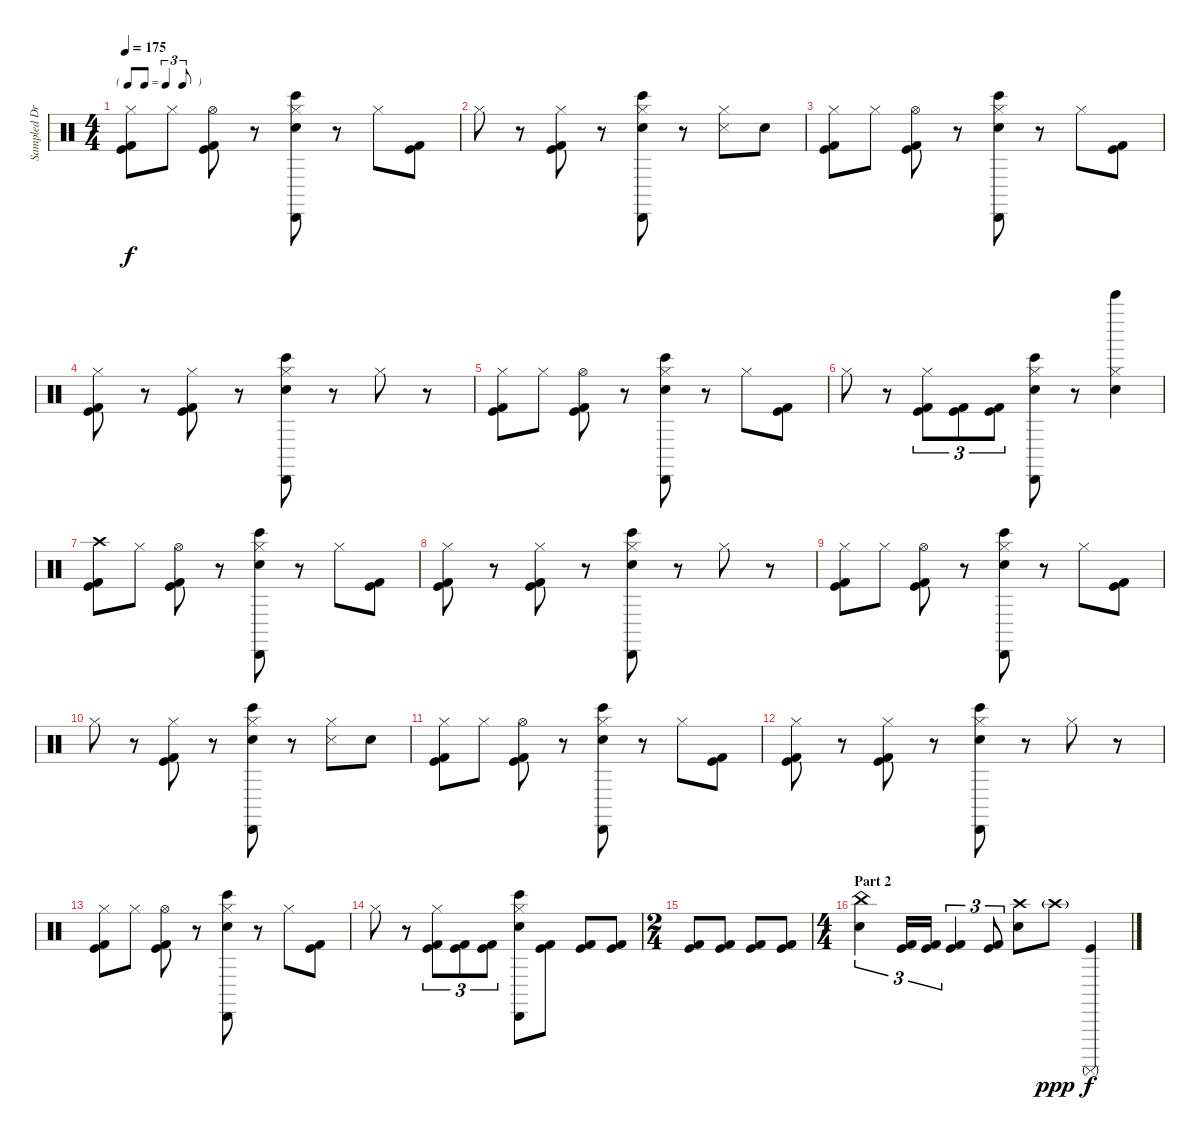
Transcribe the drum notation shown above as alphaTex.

\track ("Sampled Drums" "Sampled Dr") {instrument percussion}
\staff {score}
\articulation defaults
\ts (4 4)
\tf triplet8th
\tempo 175
\clef neutral
\ks c
("Hi-Hat (closed)" "Kick (hit) 2" "Kick (hit)").8{dy f} "Hi-Hat (closed)".8 ("Hi-Hat (open)" "Kick (hit) 2" "Kick (hit)").8 r.8 ("Hi-Hat (closed)" "Bongo High (hit)" "Cabasa (hit)" "Snare (hit) 2").8 r.8 "Hi-Hat (closed)".8 ("Kick (hit) 2" "Kick (hit)").8 |
"Hi-Hat (closed)".8 r.8 ("Hi-Hat (closed)" "Kick (hit) 2" "Kick (hit)").8 r.8 ("Hi-Hat (closed)" "Bongo High (hit)" "Cabasa (hit)" "Snare (hit) 2").8 r.8 ("Hi-Hat (closed)" "Metronome (hit)").8 "Metronome (bell)".8 |
("Hi-Hat (closed)" "Kick (hit) 2" "Kick (hit)").8 "Hi-Hat (closed)".8 ("Hi-Hat (open)" "Kick (hit) 2" "Kick (hit)").8 r.8 ("Hi-Hat (closed)" "Bongo High (hit)" "Cabasa (hit)" "Snare (hit) 2").8 r.8 "Hi-Hat (closed)".8 ("Kick (hit) 2" "Kick (hit)").8 |
("Hi-Hat (closed)" "Kick (hit) 2" "Kick (hit)").8 r.8 ("Hi-Hat (closed)" "Kick (hit) 2" "Kick (hit)").8 r.8 ("Hi-Hat (closed)" "Bongo High (hit)" "Cabasa (hit)" "Snare (hit) 2").8 r.8 "Hi-Hat (closed)".8 r.8 |
("Hi-Hat (closed)" "Kick (hit) 2" "Kick (hit)").8 "Hi-Hat (closed)".8 ("Hi-Hat (open)" "Kick (hit) 2" "Kick (hit)").8 r.8 ("Hi-Hat (closed)" "Bongo High (hit)" "Cabasa (hit)" "Snare (hit) 2").8 r.8 "Hi-Hat (closed)".8 ("Kick (hit) 2" "Kick (hit)").8 |
"Hi-Hat (closed)".8 r.8 ("Hi-Hat (closed)" "Kick (hit) 2" "Kick (hit)").8{tu (3 2)} ("Kick (hit) 2" "Kick (hit)").8{tu (3 2)} ("Kick (hit) 2" "Kick (hit)").8{tu (3 2)} ("Hi-Hat (closed)" "Bongo High (hit)" "Cabasa (hit)" "Snare (hit) 2").8 r.8 ("Hi-Hat (closed)" "Metronome (bell)" "Bell Tree (hit)").4 |
("Crash high (hit)" "Kick (hit) 2" "Kick (hit)").8 "Hi-Hat (closed)".8 ("Hi-Hat (open)" "Kick (hit) 2" "Kick (hit)").8 r.8 ("Hi-Hat (closed)" "Bongo High (hit)" "Cabasa (hit)" "Snare (hit) 2").8 r.8 "Hi-Hat (closed)".8 ("Kick (hit) 2" "Kick (hit)").8 |
("Hi-Hat (closed)" "Kick (hit) 2" "Kick (hit)").8 r.8 ("Hi-Hat (closed)" "Kick (hit) 2" "Kick (hit)").8 r.8 ("Hi-Hat (closed)" "Bongo High (hit)" "Cabasa (hit)" "Snare (hit) 2").8 r.8 "Hi-Hat (closed)".8 r.8 |
("Hi-Hat (closed)" "Kick (hit) 2" "Kick (hit)").8 "Hi-Hat (closed)".8 ("Hi-Hat (open)" "Kick (hit) 2" "Kick (hit)").8 r.8 ("Hi-Hat (closed)" "Bongo High (hit)" "Cabasa (hit)" "Snare (hit) 2").8 r.8 "Hi-Hat (closed)".8 ("Kick (hit) 2" "Kick (hit)").8 |
"Hi-Hat (closed)".8 r.8 ("Hi-Hat (closed)" "Kick (hit) 2" "Kick (hit)").8 r.8 ("Hi-Hat (closed)" "Bongo High (hit)" "Cabasa (hit)" "Snare (hit) 2").8 r.8 ("Hi-Hat (closed)" "Metronome (hit)").8 "Metronome (bell)".8 |
("Hi-Hat (closed)" "Kick (hit) 2" "Kick (hit)").8 "Hi-Hat (closed)".8 ("Hi-Hat (open)" "Kick (hit) 2" "Kick (hit)").8 r.8 ("Hi-Hat (closed)" "Bongo High (hit)" "Cabasa (hit)" "Snare (hit) 2").8 r.8 "Hi-Hat (closed)".8 ("Kick (hit) 2" "Kick (hit)").8 |
("Hi-Hat (closed)" "Kick (hit) 2" "Kick (hit)").8 r.8 ("Hi-Hat (closed)" "Kick (hit) 2" "Kick (hit)").8 r.8 ("Hi-Hat (closed)" "Bongo High (hit)" "Cabasa (hit)" "Snare (hit) 2").8 r.8 "Hi-Hat (closed)".8 r.8 |
("Hi-Hat (closed)" "Kick (hit) 2" "Kick (hit)").8 "Hi-Hat (closed)".8 ("Hi-Hat (open)" "Kick (hit) 2" "Kick (hit)").8 r.8 ("Hi-Hat (closed)" "Bongo High (hit)" "Cabasa (hit)" "Snare (hit) 2").8 r.8 "Hi-Hat (closed)".8 ("Kick (hit) 2" "Kick (hit)").8 |
"Hi-Hat (closed)".8 r.8 ("Hi-Hat (closed)" "Kick (hit) 2" "Kick (hit)").8{tu (3 2)} ("Kick (hit) 2" "Kick (hit)").8{tu (3 2)} ("Kick (hit) 2" "Kick (hit)").8{tu (3 2)} ("Hi-Hat (closed)" "Bongo High (hit)" "Cabasa (hit)" "Snare (hit) 2").8 ("Kick (hit) 2" "Kick (hit)").8 ("Kick (hit) 2" "Kick (hit)").8 ("Kick (hit) 2" "Kick (hit)").8 |
\ts (2 4)
("Kick (hit) 2" "Kick (hit)").8 ("Kick (hit) 2" "Kick (hit)").8 ("Kick (hit) 2" "Kick (hit)").8 ("Kick (hit) 2" "Kick (hit)").8 |
\ts (4 4)
\section ("" "Part 2")
("China (hit)" "Electric Snare (hit)").4{tu (3 2)} ("Kick (hit) 2" "Kick (hit)").16{tu (3 2)} ("Kick (hit) 2" "Kick (hit)").16{tu (3 2)} ("Kick (hit) 2" "Kick (hit)").4{tu (3 2)} ("Kick (hit) 2" "Kick (hit)").8{tu (3 2)} ("Crash high (hit)" "Electric Snare (hit)").8 "Crash high (hit)"{g}.8{dy ppp} ("Surdo (mute)" "Kick (hit)").4{dy f}
